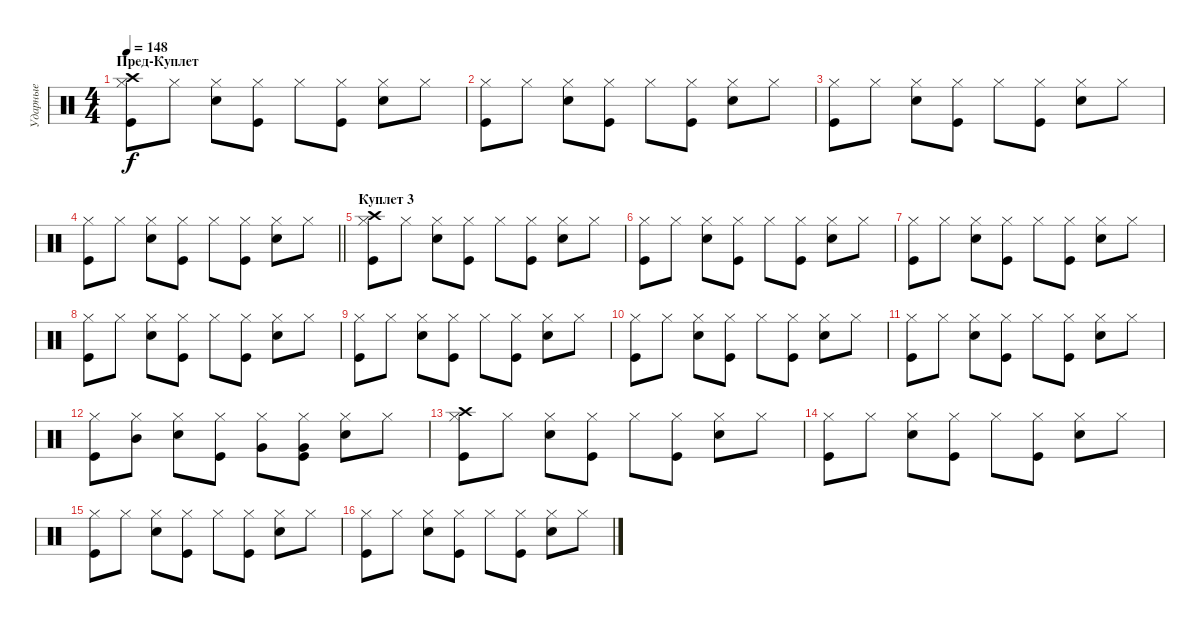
\track ("Ударные" "Ударные") {instrument percussion}
\staff {score}
\articulation defaults
\ts (4 4)
\section ("" "Пред-Куплет")
\tempo 148
\clef neutral
\ks c
("Kick (hit)" "Hi-Hat (closed)" "Crash high (hit)").8{dy f} "Hi-Hat (closed)".8 ("Snare (hit) 2" "Hi-Hat (closed)").8 ("Kick (hit)" "Hi-Hat (closed)").8 "Hi-Hat (closed)".8 ("Kick (hit)" "Hi-Hat (closed)").8 ("Snare (hit) 2" "Hi-Hat (closed)").8 "Hi-Hat (closed)".8 |
("Kick (hit)" "Hi-Hat (closed)").8 "Hi-Hat (closed)".8 ("Snare (hit) 2" "Hi-Hat (closed)").8 ("Kick (hit)" "Hi-Hat (closed)").8 "Hi-Hat (closed)".8 ("Kick (hit)" "Hi-Hat (closed)").8 ("Snare (hit) 2" "Hi-Hat (closed)").8 "Hi-Hat (closed)".8 |
("Kick (hit)" "Hi-Hat (closed)").8 "Hi-Hat (closed)".8 ("Snare (hit) 2" "Hi-Hat (closed)").8 ("Kick (hit)" "Hi-Hat (closed)").8 "Hi-Hat (closed)".8 ("Kick (hit)" "Hi-Hat (closed)").8 ("Snare (hit) 2" "Hi-Hat (closed)").8 "Hi-Hat (closed)".8 |
\barLineRight lightlight
("Kick (hit)" "Hi-Hat (closed)").8 "Hi-Hat (closed)".8 ("Snare (hit) 2" "Hi-Hat (closed)").8 ("Kick (hit)" "Hi-Hat (closed)").8 "Hi-Hat (closed)".8 ("Kick (hit)" "Hi-Hat (closed)").8 ("Snare (hit) 2" "Hi-Hat (closed)").8 "Hi-Hat (closed)".8 |
\section ("" "Куплет 3")
("Kick (hit)" "Hi-Hat (closed)" "Crash high (hit)").8 "Hi-Hat (closed)".8 ("Snare (hit) 2" "Hi-Hat (closed)").8 ("Kick (hit)" "Hi-Hat (closed)").8 "Hi-Hat (closed)".8 ("Kick (hit)" "Hi-Hat (closed)").8 ("Snare (hit) 2" "Hi-Hat (closed)").8 "Hi-Hat (closed)".8 |
("Kick (hit)" "Hi-Hat (closed)").8 "Hi-Hat (closed)".8 ("Snare (hit) 2" "Hi-Hat (closed)").8 ("Kick (hit)" "Hi-Hat (closed)").8 "Hi-Hat (closed)".8 ("Kick (hit)" "Hi-Hat (closed)").8 ("Snare (hit) 2" "Hi-Hat (closed)").8 "Hi-Hat (closed)".8 |
("Kick (hit)" "Hi-Hat (closed)").8 "Hi-Hat (closed)".8 ("Snare (hit) 2" "Hi-Hat (closed)").8 ("Kick (hit)" "Hi-Hat (closed)").8 "Hi-Hat (closed)".8 ("Kick (hit)" "Hi-Hat (closed)").8 ("Snare (hit) 2" "Hi-Hat (closed)").8 "Hi-Hat (closed)".8 |
("Kick (hit)" "Hi-Hat (closed)").8 "Hi-Hat (closed)".8 ("Snare (hit) 2" "Hi-Hat (closed)").8 ("Kick (hit)" "Hi-Hat (closed)").8 "Hi-Hat (closed)".8 ("Kick (hit)" "Hi-Hat (closed)").8 ("Snare (hit) 2" "Hi-Hat (closed)").8 "Hi-Hat (closed)".8 |
("Kick (hit)" "Hi-Hat (closed)").8 "Hi-Hat (closed)".8 ("Snare (hit) 2" "Hi-Hat (closed)").8 ("Kick (hit)" "Hi-Hat (closed)").8 "Hi-Hat (closed)".8 ("Kick (hit)" "Hi-Hat (closed)").8 ("Snare (hit) 2" "Hi-Hat (closed)").8 "Hi-Hat (closed)".8 |
("Kick (hit)" "Hi-Hat (closed)").8 "Hi-Hat (closed)".8 ("Snare (hit) 2" "Hi-Hat (closed)").8 ("Kick (hit)" "Hi-Hat (closed)").8 "Hi-Hat (closed)".8 ("Kick (hit)" "Hi-Hat (closed)").8 ("Snare (hit) 2" "Hi-Hat (closed)").8 "Hi-Hat (closed)".8 |
("Kick (hit)" "Hi-Hat (closed)").8 "Hi-Hat (closed)".8 ("Snare (hit) 2" "Hi-Hat (closed)").8 ("Kick (hit)" "Hi-Hat (closed)").8 "Hi-Hat (closed)".8 ("Kick (hit)" "Hi-Hat (closed)").8 ("Snare (hit) 2" "Hi-Hat (closed)").8 "Hi-Hat (closed)".8 |
("Kick (hit)" "Hi-Hat (closed)").8 ("Hi-Hat (closed)" "Mid Tom (hit)").8 ("Snare (hit) 2" "Hi-Hat (closed)").8 ("Kick (hit)" "Hi-Hat (closed)").8 ("Hi-Hat (closed)" "Very Low Tom (hit)").8 ("Kick (hit)" "Hi-Hat (closed)" "Very Low Tom (hit)").8 ("Snare (hit) 2" "Hi-Hat (closed)").8 "Hi-Hat (closed)".8 |
("Kick (hit)" "Hi-Hat (closed)" "Crash high (hit)").8 "Hi-Hat (closed)".8 ("Snare (hit) 2" "Hi-Hat (closed)").8 ("Kick (hit)" "Hi-Hat (closed)").8 "Hi-Hat (closed)".8 ("Kick (hit)" "Hi-Hat (closed)").8 ("Snare (hit) 2" "Hi-Hat (closed)").8 "Hi-Hat (closed)".8 |
("Kick (hit)" "Hi-Hat (closed)").8 "Hi-Hat (closed)".8 ("Snare (hit) 2" "Hi-Hat (closed)").8 ("Kick (hit)" "Hi-Hat (closed)").8 "Hi-Hat (closed)".8 ("Kick (hit)" "Hi-Hat (closed)").8 ("Snare (hit) 2" "Hi-Hat (closed)").8 "Hi-Hat (closed)".8 |
("Kick (hit)" "Hi-Hat (closed)").8 "Hi-Hat (closed)".8 ("Snare (hit) 2" "Hi-Hat (closed)").8 ("Kick (hit)" "Hi-Hat (closed)").8 "Hi-Hat (closed)".8 ("Kick (hit)" "Hi-Hat (closed)").8 ("Snare (hit) 2" "Hi-Hat (closed)").8 "Hi-Hat (closed)".8 |
("Kick (hit)" "Hi-Hat (closed)").8 "Hi-Hat (closed)".8 ("Snare (hit) 2" "Hi-Hat (closed)").8 ("Kick (hit)" "Hi-Hat (closed)").8 "Hi-Hat (closed)".8 ("Kick (hit)" "Hi-Hat (closed)").8 ("Snare (hit) 2" "Hi-Hat (closed)").8 "Hi-Hat (closed)".8
